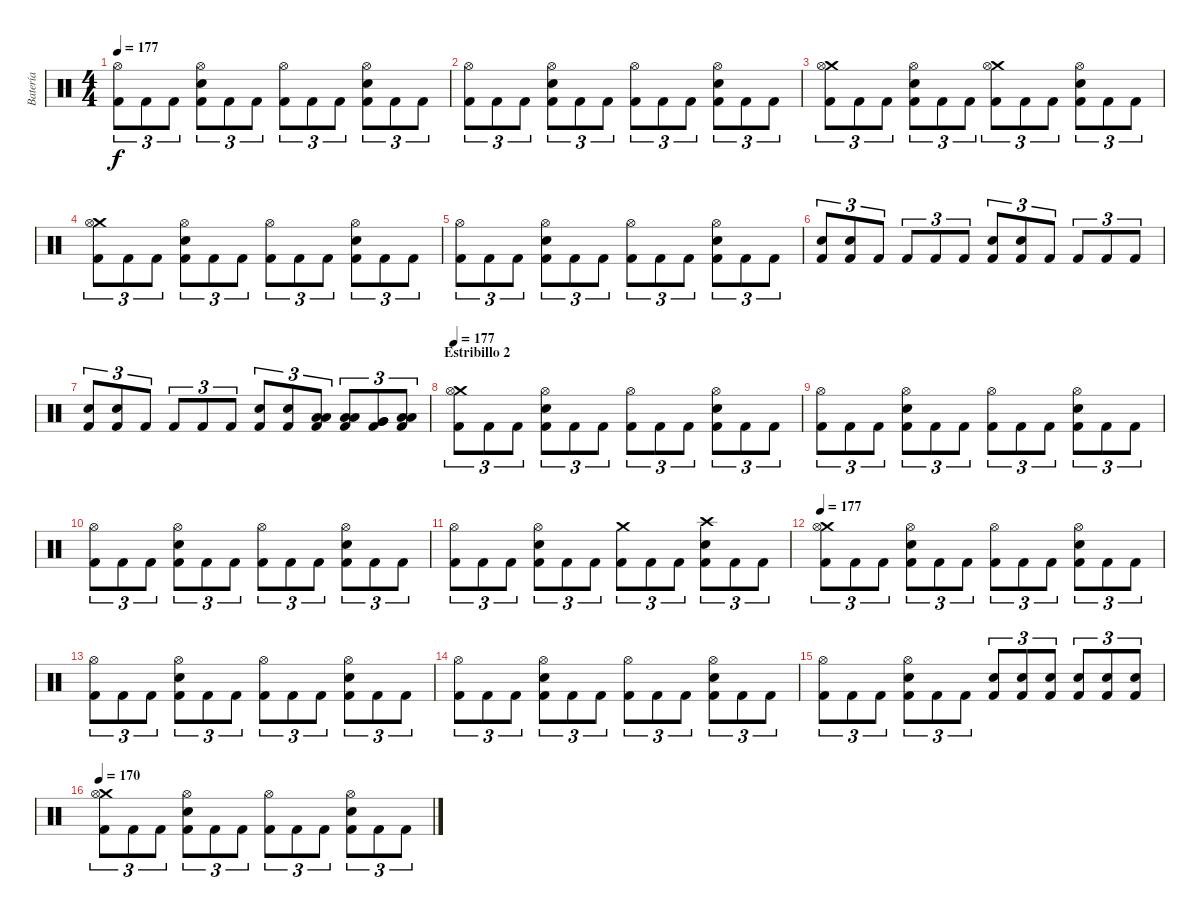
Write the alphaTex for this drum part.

\track ("Batería" "Batería") {instrument percussion}
\staff {score}
\articulation defaults
\ts (4 4)
\tempo 177
\clef neutral
\ks c
("Hi-Hat (open)" "Kick (hit) 2").8{tu (3 2) dy f} "Kick (hit) 2".8{tu (3 2)} "Kick (hit) 2".8{tu (3 2)} ("Hi-Hat (open)" "Snare (hit) 2" "Kick (hit) 2").8{tu (3 2)} "Kick (hit) 2".8{tu (3 2)} "Kick (hit) 2".8{tu (3 2)} ("Hi-Hat (open)" "Kick (hit) 2").8{tu (3 2)} "Kick (hit) 2".8{tu (3 2)} "Kick (hit) 2".8{tu (3 2)} ("Hi-Hat (open)" "Snare (hit) 2" "Kick (hit) 2").8{tu (3 2)} "Kick (hit) 2".8{tu (3 2)} "Kick (hit) 2".8{tu (3 2)} |
("Hi-Hat (open)" "Kick (hit) 2").8{tu (3 2)} "Kick (hit) 2".8{tu (3 2)} "Kick (hit) 2".8{tu (3 2)} ("Hi-Hat (open)" "Snare (hit) 2" "Kick (hit) 2").8{tu (3 2)} "Kick (hit) 2".8{tu (3 2)} "Kick (hit) 2".8{tu (3 2)} ("Hi-Hat (open)" "Kick (hit) 2").8{tu (3 2)} "Kick (hit) 2".8{tu (3 2)} "Kick (hit) 2".8{tu (3 2)} ("Hi-Hat (open)" "Snare (hit) 2" "Kick (hit) 2").8{tu (3 2)} "Kick (hit) 2".8{tu (3 2)} "Kick (hit) 2".8{tu (3 2)} |
("Crash medium (hit)" "Hi-Hat (open)" "Kick (hit) 2").8{tu (3 2)} "Kick (hit) 2".8{tu (3 2)} "Kick (hit) 2".8{tu (3 2)} ("Hi-Hat (open)" "Snare (hit) 2" "Kick (hit) 2").8{tu (3 2)} "Kick (hit) 2".8{tu (3 2)} "Kick (hit) 2".8{tu (3 2)} ("Crash medium (hit)" "Hi-Hat (open)" "Kick (hit) 2").8{tu (3 2)} "Kick (hit) 2".8{tu (3 2)} "Kick (hit) 2".8{tu (3 2)} ("Hi-Hat (open)" "Snare (hit) 2" "Kick (hit) 2").8{tu (3 2)} "Kick (hit) 2".8{tu (3 2)} "Kick (hit) 2".8{tu (3 2)} |
("Crash medium (hit)" "Hi-Hat (open)" "Kick (hit) 2").8{tu (3 2)} "Kick (hit) 2".8{tu (3 2)} "Kick (hit) 2".8{tu (3 2)} ("Hi-Hat (open)" "Snare (hit) 2" "Kick (hit) 2").8{tu (3 2)} "Kick (hit) 2".8{tu (3 2)} "Kick (hit) 2".8{tu (3 2)} ("Hi-Hat (open)" "Kick (hit) 2").8{tu (3 2)} "Kick (hit) 2".8{tu (3 2)} "Kick (hit) 2".8{tu (3 2)} ("Hi-Hat (open)" "Snare (hit) 2" "Kick (hit) 2").8{tu (3 2)} "Kick (hit) 2".8{tu (3 2)} "Kick (hit) 2".8{tu (3 2)} |
("Hi-Hat (open)" "Kick (hit) 2").8{tu (3 2)} "Kick (hit) 2".8{tu (3 2)} "Kick (hit) 2".8{tu (3 2)} ("Hi-Hat (open)" "Snare (hit) 2" "Kick (hit) 2").8{tu (3 2)} "Kick (hit) 2".8{tu (3 2)} "Kick (hit) 2".8{tu (3 2)} ("Hi-Hat (open)" "Kick (hit) 2").8{tu (3 2)} "Kick (hit) 2".8{tu (3 2)} "Kick (hit) 2".8{tu (3 2)} ("Hi-Hat (open)" "Snare (hit) 2" "Kick (hit) 2").8{tu (3 2)} "Kick (hit) 2".8{tu (3 2)} "Kick (hit) 2".8{tu (3 2)} |
("Snare (hit) 2" "Kick (hit) 2").8{tu (3 2)} ("Snare (hit) 2" "Kick (hit) 2").8{tu (3 2)} "Kick (hit) 2".8{tu (3 2)} "Kick (hit) 2".8{tu (3 2)} "Kick (hit) 2".8{tu (3 2)} "Kick (hit) 2".8{tu (3 2)} ("Snare (hit) 2" "Kick (hit) 2").8{tu (3 2)} ("Snare (hit) 2" "Kick (hit) 2").8{tu (3 2)} "Kick (hit) 2".8{tu (3 2)} "Kick (hit) 2".8{tu (3 2)} "Kick (hit) 2".8{tu (3 2)} "Kick (hit) 2".8{tu (3 2)} |
("Snare (hit) 2" "Kick (hit) 2").8{tu (3 2)} ("Snare (hit) 2" "Kick (hit) 2").8{tu (3 2)} "Kick (hit) 2".8{tu (3 2)} "Kick (hit) 2".8{tu (3 2)} "Kick (hit) 2".8{tu (3 2)} "Kick (hit) 2".8{tu (3 2)} ("Snare (hit) 2" "Kick (hit) 2").8{tu (3 2)} ("Snare (hit) 2" "Kick (hit) 2").8{tu (3 2)} ("Low Tom (hit)" "Low Tom (hit)" "Kick (hit) 2").8{tu (3 2)} ("Low Tom (hit)" "Low Tom (hit)" "Kick (hit) 2").8{tu (3 2)} ("Very Low Tom (hit)" "Very Low Tom (hit)" "Kick (hit) 2").8{tu (3 2)} ("Low Floor Tom (hit)" "Low Floor Tom (hit)" "Kick (hit) 2").8{tu (3 2)} |
\section ("" "Estribillo 2")
\tempo 177
("Crash medium (hit)" "Hi-Hat (open)" "Kick (hit) 2").8{tu (3 2)} "Kick (hit) 2".8{tu (3 2)} "Kick (hit) 2".8{tu (3 2)} ("Hi-Hat (open)" "Snare (hit) 2" "Kick (hit) 2").8{tu (3 2)} "Kick (hit) 2".8{tu (3 2)} "Kick (hit) 2".8{tu (3 2)} ("Hi-Hat (open)" "Kick (hit) 2").8{tu (3 2)} "Kick (hit) 2".8{tu (3 2)} "Kick (hit) 2".8{tu (3 2)} ("Hi-Hat (open)" "Snare (hit) 2" "Kick (hit) 2").8{tu (3 2)} "Kick (hit) 2".8{tu (3 2)} "Kick (hit) 2".8{tu (3 2)} |
("Hi-Hat (open)" "Kick (hit) 2").8{tu (3 2)} "Kick (hit) 2".8{tu (3 2)} "Kick (hit) 2".8{tu (3 2)} ("Hi-Hat (open)" "Snare (hit) 2" "Kick (hit) 2").8{tu (3 2)} "Kick (hit) 2".8{tu (3 2)} "Kick (hit) 2".8{tu (3 2)} ("Hi-Hat (open)" "Kick (hit) 2").8{tu (3 2)} "Kick (hit) 2".8{tu (3 2)} "Kick (hit) 2".8{tu (3 2)} ("Hi-Hat (open)" "Snare (hit) 2" "Kick (hit) 2").8{tu (3 2)} "Kick (hit) 2".8{tu (3 2)} "Kick (hit) 2".8{tu (3 2)} |
("Hi-Hat (open)" "Kick (hit) 2").8{tu (3 2)} "Kick (hit) 2".8{tu (3 2)} "Kick (hit) 2".8{tu (3 2)} ("Hi-Hat (open)" "Snare (hit) 2" "Kick (hit) 2").8{tu (3 2)} "Kick (hit) 2".8{tu (3 2)} "Kick (hit) 2".8{tu (3 2)} ("Hi-Hat (open)" "Kick (hit) 2").8{tu (3 2)} "Kick (hit) 2".8{tu (3 2)} "Kick (hit) 2".8{tu (3 2)} ("Hi-Hat (open)" "Snare (hit) 2" "Kick (hit) 2").8{tu (3 2)} "Kick (hit) 2".8{tu (3 2)} "Kick (hit) 2".8{tu (3 2)} |
("Hi-Hat (open)" "Kick (hit) 2").8{tu (3 2)} "Kick (hit) 2".8{tu (3 2)} "Kick (hit) 2".8{tu (3 2)} ("Hi-Hat (open)" "Snare (hit) 2" "Kick (hit) 2").8{tu (3 2)} "Kick (hit) 2".8{tu (3 2)} "Kick (hit) 2".8{tu (3 2)} ("Crash medium (hit)" "Kick (hit) 2").8{tu (3 2)} "Kick (hit) 2".8{tu (3 2)} "Kick (hit) 2".8{tu (3 2)} ("Crash high (hit)" "Snare (hit) 2" "Kick (hit) 2").8{tu (3 2)} "Kick (hit) 2".8{tu (3 2)} "Kick (hit) 2".8{tu (3 2)} |
\tempo 177
("Crash medium (hit)" "Hi-Hat (open)" "Kick (hit) 2").8{tu (3 2)} "Kick (hit) 2".8{tu (3 2)} "Kick (hit) 2".8{tu (3 2)} ("Hi-Hat (open)" "Snare (hit) 2" "Kick (hit) 2").8{tu (3 2)} "Kick (hit) 2".8{tu (3 2)} "Kick (hit) 2".8{tu (3 2)} ("Hi-Hat (open)" "Kick (hit) 2").8{tu (3 2)} "Kick (hit) 2".8{tu (3 2)} "Kick (hit) 2".8{tu (3 2)} ("Hi-Hat (open)" "Snare (hit) 2" "Kick (hit) 2").8{tu (3 2)} "Kick (hit) 2".8{tu (3 2)} "Kick (hit) 2".8{tu (3 2)} |
("Hi-Hat (open)" "Kick (hit) 2").8{tu (3 2)} "Kick (hit) 2".8{tu (3 2)} "Kick (hit) 2".8{tu (3 2)} ("Hi-Hat (open)" "Snare (hit) 2" "Kick (hit) 2").8{tu (3 2)} "Kick (hit) 2".8{tu (3 2)} "Kick (hit) 2".8{tu (3 2)} ("Hi-Hat (open)" "Kick (hit) 2").8{tu (3 2)} "Kick (hit) 2".8{tu (3 2)} "Kick (hit) 2".8{tu (3 2)} ("Hi-Hat (open)" "Snare (hit) 2" "Kick (hit) 2").8{tu (3 2)} "Kick (hit) 2".8{tu (3 2)} "Kick (hit) 2".8{tu (3 2)} |
("Hi-Hat (open)" "Kick (hit) 2").8{tu (3 2)} "Kick (hit) 2".8{tu (3 2)} "Kick (hit) 2".8{tu (3 2)} ("Hi-Hat (open)" "Snare (hit) 2" "Kick (hit) 2").8{tu (3 2)} "Kick (hit) 2".8{tu (3 2)} "Kick (hit) 2".8{tu (3 2)} ("Hi-Hat (open)" "Kick (hit) 2").8{tu (3 2)} "Kick (hit) 2".8{tu (3 2)} "Kick (hit) 2".8{tu (3 2)} ("Hi-Hat (open)" "Snare (hit) 2" "Kick (hit) 2").8{tu (3 2)} "Kick (hit) 2".8{tu (3 2)} "Kick (hit) 2".8{tu (3 2)} |
("Hi-Hat (open)" "Kick (hit) 2").8{tu (3 2)} "Kick (hit) 2".8{tu (3 2)} "Kick (hit) 2".8{tu (3 2)} ("Hi-Hat (open)" "Snare (hit) 2" "Kick (hit) 2").8{tu (3 2)} "Kick (hit) 2".8{tu (3 2)} "Kick (hit) 2".8{tu (3 2)} ("Snare (hit) 2" "Kick (hit) 2").8{tu (3 2)} ("Snare (hit) 2" "Kick (hit) 2").8{tu (3 2)} ("Snare (hit) 2" "Kick (hit) 2").8{tu (3 2)} ("Snare (hit) 2" "Kick (hit) 2").8{tu (3 2)} ("Snare (hit) 2" "Kick (hit) 2").8{tu (3 2)} ("Snare (hit) 2" "Kick (hit) 2").8{tu (3 2)} |
\tempo 170
("Crash medium (hit)" "Hi-Hat (open)" "Kick (hit) 2").8{tu (3 2)} "Kick (hit) 2".8{tu (3 2)} "Kick (hit) 2".8{tu (3 2)} ("Hi-Hat (open)" "Snare (hit) 2" "Kick (hit) 2").8{tu (3 2)} "Kick (hit) 2".8{tu (3 2)} "Kick (hit) 2".8{tu (3 2)} ("Hi-Hat (open)" "Kick (hit) 2").8{tu (3 2)} "Kick (hit) 2".8{tu (3 2)} "Kick (hit) 2".8{tu (3 2)} ("Hi-Hat (open)" "Snare (hit) 2" "Kick (hit) 2").8{tu (3 2)} "Kick (hit) 2".8{tu (3 2)} "Kick (hit) 2".8{tu (3 2)}
